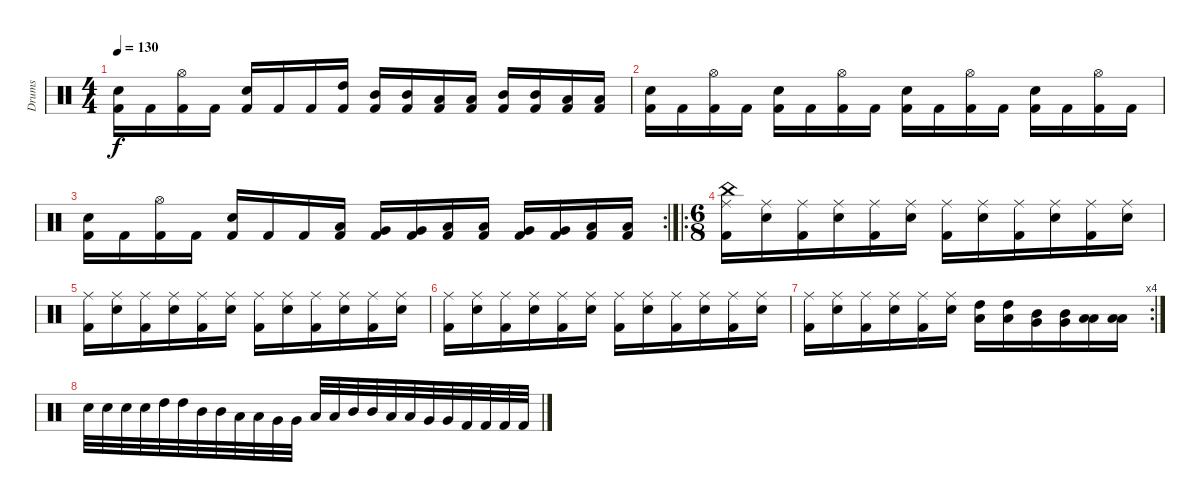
\track ("Drums" "Drums") {instrument percussion}
\staff {score}
\articulation defaults
\ts (4 4)
\tempo 130
\clef neutral
\ks c
("Snare (hit) 2" "Kick (hit) 2").16{dy f} "Kick (hit) 2".16 ("Hi-Hat (open)" "Kick (hit) 2").16 "Kick (hit) 2".16 ("Snare (hit) 2" "Kick (hit) 2").16 "Kick (hit) 2".16 "Kick (hit) 2".16 ("High Tom (hit)" "Kick (hit) 2").16 ("Mid Tom (hit)" "Kick (hit) 2").16 ("Mid Tom (hit)" "Kick (hit) 2").16 ("Low Tom (hit)" "Kick (hit) 2").16 ("Low Tom (hit)" "Kick (hit) 2").16 ("Mid Tom (hit)" "Kick (hit) 2").16 ("Mid Tom (hit)" "Kick (hit) 2").16 ("Low Tom (hit)" "Kick (hit) 2").16 ("Low Tom (hit)" "Kick (hit) 2").16 |
("Snare (hit) 2" "Kick (hit) 2").16 "Kick (hit) 2".16 ("Hi-Hat (open)" "Kick (hit) 2").16 "Kick (hit) 2".16 ("Snare (hit) 2" "Kick (hit) 2").16 "Kick (hit) 2".16 ("Hi-Hat (open)" "Kick (hit) 2").16 "Kick (hit) 2".16 ("Snare (hit) 2" "Kick (hit) 2").16 "Kick (hit) 2".16 ("Hi-Hat (open)" "Kick (hit) 2").16 "Kick (hit) 2".16 ("Snare (hit) 2" "Kick (hit) 2").16 "Kick (hit) 2".16 ("Hi-Hat (open)" "Kick (hit) 2").16 "Kick (hit) 2".16 |
\rc 2
("Snare (hit) 2" "Kick (hit) 2").16 "Kick (hit) 2".16 ("Hi-Hat (open)" "Kick (hit) 2").16 "Kick (hit) 2".16 ("Snare (hit) 2" "Kick (hit) 2").16 "Kick (hit) 2".16 "Kick (hit) 2".16 ("Low Tom (hit)" "Kick (hit) 2").16 ("Very Low Tom (hit)" "Kick (hit) 2").16 ("Very Low Tom (hit)" "Kick (hit) 2").16 ("Low Floor Tom (hit)" "Kick (hit) 2").16 ("Low Floor Tom (hit)" "Kick (hit) 2").16 ("Very Low Tom (hit)" "Kick (hit) 2").16 ("Very Low Tom (hit)" "Kick (hit) 2").16 ("Low Floor Tom (hit)" "Kick (hit) 2").16 ("Low Floor Tom (hit)" "Kick (hit) 2").16 |
\ro
\ts (6 8)
("China (hit)" "Ride (middle)" "Kick (hit) 2").16 ("Ride (middle)" "Snare (hit) 2").16 ("Ride (middle)" "Kick (hit) 2").16 ("Ride (middle)" "Snare (hit) 2").16 ("Ride (middle)" "Kick (hit) 2").16 ("Ride (middle)" "Snare (hit) 2").16 ("Ride (middle)" "Kick (hit) 2").16 ("Ride (middle)" "Snare (hit) 2").16 ("Ride (middle)" "Kick (hit) 2").16 ("Ride (middle)" "Snare (hit) 2").16 ("Ride (middle)" "Kick (hit) 2").16 ("Ride (middle)" "Snare (hit) 2").16 |
("Ride (middle)" "Kick (hit) 2").16 ("Ride (middle)" "Snare (hit) 2").16 ("Ride (middle)" "Kick (hit) 2").16 ("Ride (middle)" "Snare (hit) 2").16 ("Ride (middle)" "Kick (hit) 2").16 ("Ride (middle)" "Snare (hit) 2").16 ("Ride (middle)" "Kick (hit) 2").16 ("Ride (middle)" "Snare (hit) 2").16 ("Ride (middle)" "Kick (hit) 2").16 ("Ride (middle)" "Snare (hit) 2").16 ("Ride (middle)" "Kick (hit) 2").16 ("Ride (middle)" "Snare (hit) 2").16 |
("Ride (middle)" "Kick (hit) 2").16 ("Ride (middle)" "Snare (hit) 2").16 ("Ride (middle)" "Kick (hit) 2").16 ("Ride (middle)" "Snare (hit) 2").16 ("Ride (middle)" "Kick (hit) 2").16 ("Ride (middle)" "Snare (hit) 2").16 ("Ride (middle)" "Kick (hit) 2").16 ("Ride (middle)" "Snare (hit) 2").16 ("Ride (middle)" "Kick (hit) 2").16 ("Ride (middle)" "Snare (hit) 2").16 ("Ride (middle)" "Kick (hit) 2").16 ("Ride (middle)" "Snare (hit) 2").16 |
\rc 4
("Ride (middle)" "Kick (hit) 2").16 ("Ride (middle)" "Snare (hit) 2").16 ("Ride (middle)" "Kick (hit) 2").16 ("Ride (middle)" "Snare (hit) 2").16 ("Ride (middle)" "Kick (hit) 2").16 ("Ride (middle)" "Snare (hit) 2").16 ("High Tom (hit)" "Low Tom (hit)").16 ("High Tom (hit)" "Low Tom (hit)").16 ("Mid Tom (hit)" "Very Low Tom (hit)").16 ("Mid Tom (hit)" "Very Low Tom (hit)").16 ("Low Tom (hit)" "Low Floor Tom (hit)").16 ("Low Tom (hit)" "Low Floor Tom (hit)").16 |
"Snare (hit) 2".32 "Snare (hit) 2".32 "Snare (hit) 2".32 "Snare (hit) 2".32 "High Tom (hit)".32 "High Tom (hit)".32 "Mid Tom (hit)".32 "Mid Tom (hit)".32 "Low Tom (hit)".32 "Low Tom (hit)".32 "Very Low Tom (hit)".32 "Very Low Tom (hit)".32 "Low Tom (hit)".32 "Low Tom (hit)".32 "Mid Tom (hit)".32 "Mid Tom (hit)".32 "Low Tom (hit)".32 "Low Tom (hit)".32 "Very Low Tom (hit)".32 "Very Low Tom (hit)".32 "Kick (hit) 2".32 "Kick (hit) 2".32 "Kick (hit) 2".32 "Kick (hit) 2".32
